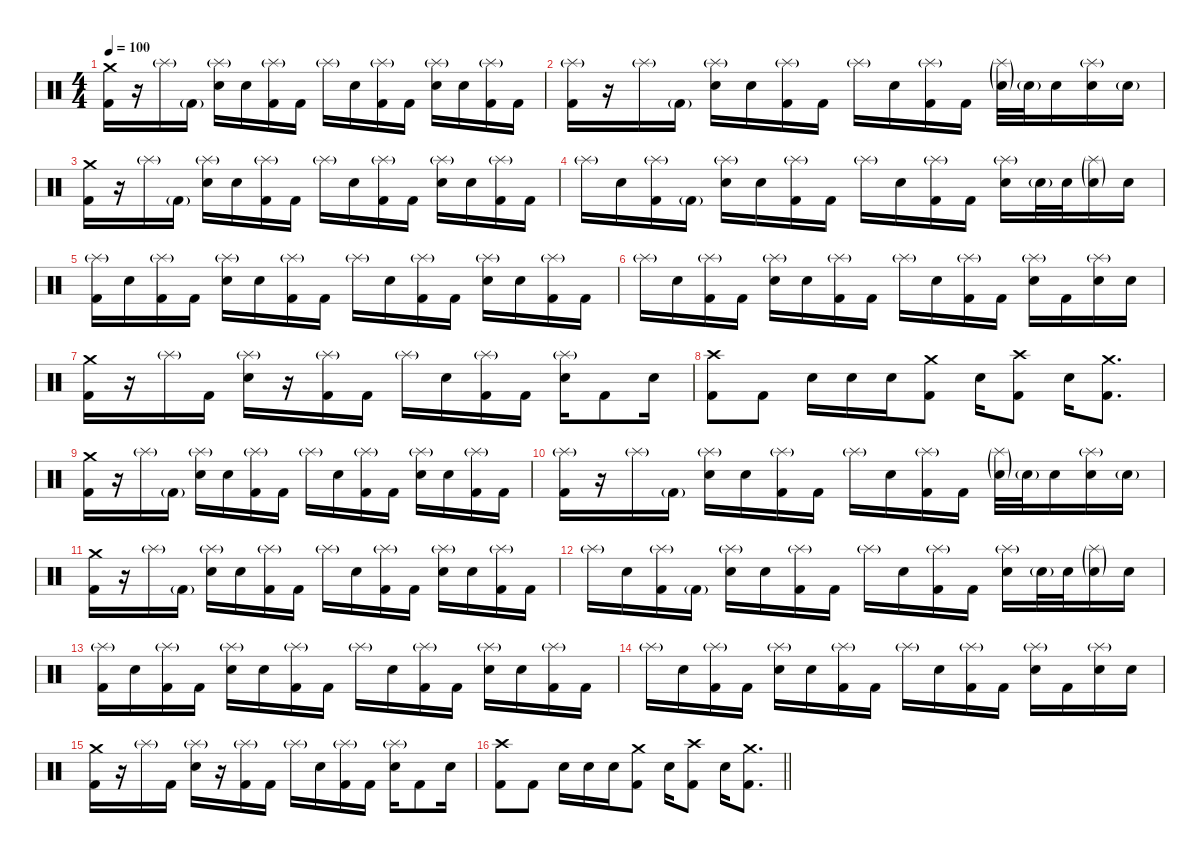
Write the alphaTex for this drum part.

\defaultSystemsLayout 4
\hideDynamics
\bracketExtendMode nobrackets
\singleTrackTrackNamePolicy hidden
\multiTrackTrackNamePolicy hidden
\firstSystemTrackNameMode fullname
\firstSystemTrackNameOrientation horizontal
\otherSystemsTrackNameOrientation horizontal
\track ("Drums" "drm.") {instrument percussion}
\staff {score}
\articulation defaults
\ts (4 4)
\tempo 100
\clef neutral
\ks c
("Crash medium (hit)" "Kick (hit) 2").16{dy f beam Down} r.16{beam Down} "Splash (hit)"{g}.16{dy mf beam Down} "Kick (hit) 2"{g}.16{dy f beam Down} ("Splash (hit)"{g} "Snare (hit) 2").16{beam Down} "Snare (hit) 2".16{beam Down} ("Splash (hit)"{g} "Kick (hit) 2").16{beam Down} "Kick (hit) 2".16{beam Down} "Splash (hit)"{g}.16{dy mf beam Down} "Snare (hit) 2".16{dy f beam Down} ("Splash (hit)"{g} "Kick (hit) 2").16{beam Down} "Kick (hit) 2".16{beam Down} ("Splash (hit)"{g} "Snare (hit) 2").16{beam Down} "Snare (hit) 2".16{beam Down} ("Splash (hit)"{g} "Kick (hit) 2").16{beam Down} "Kick (hit) 2".16{beam Down} |
("Splash (hit)"{g} "Kick (hit) 2").16{beam Down} r.16{beam Down} "Splash (hit)"{g}.16{dy mf beam Down} "Kick (hit) 2"{g}.16{dy f beam Down} ("Splash (hit)"{g} "Snare (hit) 2").16{beam Down} "Snare (hit) 2".16{beam Down} ("Splash (hit)"{g} "Kick (hit) 2").16{beam Down} "Kick (hit) 2".16{beam Down} "Splash (hit)"{g}.16{dy mf beam Down} "Snare (hit) 2".16{dy f beam Down} ("Splash (hit)"{g} "Kick (hit) 2").16{beam Down} "Kick (hit) 2".16{beam Down} ("Splash (hit)"{g} "Snare (hit) 2"{g}).32{dy mf beam Down} "Snare (hit) 2"{g}.32{dy f beam Down} "Snare (hit) 2".16{beam Down} ("Splash (hit)"{g} "Snare (hit) 2").16{beam Down} "Snare (hit) 2"{g}.16{beam Down} |
("Crash medium (hit)" "Kick (hit) 2").16{beam Down} r.16{beam Down} "Splash (hit)"{g}.16{dy mf beam Down} "Kick (hit) 2"{g}.16{beam Down} ("Splash (hit)"{g} "Snare (hit) 2").16{dy f beam Down} "Snare (hit) 2".16{beam Down} ("Splash (hit)"{g} "Kick (hit) 2").16{beam Down} "Kick (hit) 2".16{beam Down} "Splash (hit)"{g}.16{dy mf beam Down} "Snare (hit) 2".16{dy f beam Down} ("Splash (hit)"{g} "Kick (hit) 2").16{beam Down} "Kick (hit) 2".16{beam Down} ("Splash (hit)"{g} "Snare (hit) 2").16{beam Down} "Snare (hit) 2".16{beam Down} ("Splash (hit)"{g} "Kick (hit) 2").16{beam Down} "Kick (hit) 2".16{beam Down} |
"Splash (hit)"{g}.16{dy mf beam Down} "Snare (hit) 2".16{dy f beam Down} ("Splash (hit)"{g} "Kick (hit) 2").16{beam Down} "Kick (hit) 2"{g}.16{dy mf beam Down} ("Splash (hit)"{g} "Snare (hit) 2").16{dy f beam Down} "Snare (hit) 2".16{beam Down} ("Splash (hit)"{g} "Kick (hit) 2").16{beam Down} "Kick (hit) 2".16{beam Down} "Splash (hit)"{g}.16{dy mf beam Down} "Snare (hit) 2".16{dy f beam Down} ("Splash (hit)"{g} "Kick (hit) 2").16{beam Down} "Kick (hit) 2".16{beam Down} ("Splash (hit)"{g} "Snare (hit) 2").16{beam Down} "Snare (hit) 2"{g}.32{beam Down} "Snare (hit) 2".32{beam Down} ("Splash (hit)"{g} "Snare (hit) 2"{g}).16{dy mf beam Down} "Snare (hit) 2".16{dy f beam Down} |
("Splash (hit)"{g} "Kick (hit) 2").16{beam Down} "Snare (hit) 2".16{beam Down} ("Splash (hit)"{g} "Kick (hit) 2").16{beam Down} "Kick (hit) 2".16{beam Down} ("Splash (hit)"{g} "Snare (hit) 2").16{beam Down} "Snare (hit) 2".16{beam Down} ("Splash (hit)"{g} "Kick (hit) 2").16{beam Down} "Kick (hit) 2".16{beam Down} "Splash (hit)"{g}.16{dy mf beam Down} "Snare (hit) 2".16{dy f beam Down} ("Splash (hit)"{g} "Kick (hit) 2").16{beam Down} "Kick (hit) 2".16{beam Down} ("Splash (hit)"{g} "Snare (hit) 2").16{beam Down} "Snare (hit) 2".16{beam Down} ("Splash (hit)"{g} "Kick (hit) 2").16{beam Down} "Kick (hit) 2".16{beam Down} |
"Splash (hit)"{g}.16{dy mf beam Down} "Snare (hit) 2".16{dy f beam Down} ("Splash (hit)"{g} "Kick (hit) 2").16{beam Down} "Kick (hit) 2".16{beam Down} ("Splash (hit)"{g} "Snare (hit) 2").16{beam Down} "Snare (hit) 2".16{beam Down} ("Splash (hit)"{g} "Kick (hit) 2").16{beam Down} "Kick (hit) 2".16{beam Down} "Splash (hit)"{g}.16{dy mf beam Down} "Snare (hit) 2".16{dy f beam Down} ("Splash (hit)"{g} "Kick (hit) 2").16{beam Down} "Kick (hit) 2".16{beam Down} ("Splash (hit)"{g} "Snare (hit) 2").16{beam Down} "Kick (hit) 2".16{beam Down} ("Splash (hit)"{g} "Snare (hit) 2").16{beam Down} "Snare (hit) 2".16{beam Down} |
("Crash medium (hit)" "Kick (hit) 2").16{beam Down} r.16{beam Down} "Splash (hit)"{g}.16{dy mf beam Down} "Kick (hit) 2".16{dy f beam Down} ("Splash (hit)"{g} "Snare (hit) 2").16{beam Down} r.16{beam Down} ("Splash (hit)"{g} "Kick (hit) 2").16{beam Down} "Kick (hit) 2".16{beam Down} "Splash (hit)"{g}.16{dy mf beam Down} "Snare (hit) 2".16{dy f beam Down} ("Splash (hit)"{g} "Kick (hit) 2").16{beam Down} "Kick (hit) 2".16{beam Down} ("Splash (hit)"{g} "Snare (hit) 2").16{beam Down} "Kick (hit) 2".8{beam Down} "Snare (hit) 2".16{beam Down} |
("Crash high (hit)" "Kick (hit) 2").8{beam Down} "Kick (hit) 2".8{beam Down} "Snare (hit) 2".16{beam Down} "Snare (hit) 2".16{beam Down} "Snare (hit) 2".16{beam Down} ("Crash medium (hit)" "Kick (hit) 2").8{beam Down} "Snare (hit) 2".16{beam Down} ("Crash high (hit)" "Kick (hit) 2").8{beam Down} "Snare (hit) 2".16{beam Down} ("Crash medium (hit)" "Kick (hit) 2").8{d beam Down} |
("Crash medium (hit)" "Kick (hit) 2").16{beam Down} r.16{beam Down} "Splash (hit)"{g}.16{dy mf beam Down} "Kick (hit) 2"{g}.16{dy f beam Down} ("Splash (hit)"{g} "Snare (hit) 2").16{beam Down} "Snare (hit) 2".16{beam Down} ("Splash (hit)"{g} "Kick (hit) 2").16{beam Down} "Kick (hit) 2".16{beam Down} "Splash (hit)"{g}.16{dy mf beam Down} "Snare (hit) 2".16{dy f beam Down} ("Splash (hit)"{g} "Kick (hit) 2").16{beam Down} "Kick (hit) 2".16{beam Down} ("Splash (hit)"{g} "Snare (hit) 2").16{beam Down} "Snare (hit) 2".16{beam Down} ("Splash (hit)"{g} "Kick (hit) 2").16{beam Down} "Kick (hit) 2".16{beam Down} |
("Splash (hit)"{g} "Kick (hit) 2").16{beam Down} r.16{beam Down} "Splash (hit)"{g}.16{dy mf beam Down} "Kick (hit) 2"{g}.16{dy f beam Down} ("Splash (hit)"{g} "Snare (hit) 2").16{beam Down} "Snare (hit) 2".16{beam Down} ("Splash (hit)"{g} "Kick (hit) 2").16{beam Down} "Kick (hit) 2".16{beam Down} "Splash (hit)"{g}.16{dy mf beam Down} "Snare (hit) 2".16{dy f beam Down} ("Splash (hit)"{g} "Kick (hit) 2").16{beam Down} "Kick (hit) 2".16{beam Down} ("Splash (hit)"{g} "Snare (hit) 2"{g}).32{dy mf beam Down} "Snare (hit) 2"{g}.32{dy f beam Down} "Snare (hit) 2".16{beam Down} ("Splash (hit)"{g} "Snare (hit) 2").16{beam Down} "Snare (hit) 2"{g}.16{beam Down} |
("Crash medium (hit)" "Kick (hit) 2").16{beam Down} r.16{beam Down} "Splash (hit)"{g}.16{dy mf beam Down} "Kick (hit) 2"{g}.16{beam Down} ("Splash (hit)"{g} "Snare (hit) 2").16{dy f beam Down} "Snare (hit) 2".16{beam Down} ("Splash (hit)"{g} "Kick (hit) 2").16{beam Down} "Kick (hit) 2".16{beam Down} "Splash (hit)"{g}.16{dy mf beam Down} "Snare (hit) 2".16{dy f beam Down} ("Splash (hit)"{g} "Kick (hit) 2").16{beam Down} "Kick (hit) 2".16{beam Down} ("Splash (hit)"{g} "Snare (hit) 2").16{beam Down} "Snare (hit) 2".16{beam Down} ("Splash (hit)"{g} "Kick (hit) 2").16{beam Down} "Kick (hit) 2".16{beam Down} |
"Splash (hit)"{g}.16{dy mf beam Down} "Snare (hit) 2".16{dy f beam Down} ("Splash (hit)"{g} "Kick (hit) 2").16{beam Down} "Kick (hit) 2"{g}.16{dy mf beam Down} ("Splash (hit)"{g} "Snare (hit) 2").16{dy f beam Down} "Snare (hit) 2".16{beam Down} ("Splash (hit)"{g} "Kick (hit) 2").16{beam Down} "Kick (hit) 2".16{beam Down} "Splash (hit)"{g}.16{dy mf beam Down} "Snare (hit) 2".16{dy f beam Down} ("Splash (hit)"{g} "Kick (hit) 2").16{beam Down} "Kick (hit) 2".16{beam Down} ("Splash (hit)"{g} "Snare (hit) 2").16{beam Down} "Snare (hit) 2"{g}.32{beam Down} "Snare (hit) 2".32{beam Down} ("Splash (hit)"{g} "Snare (hit) 2"{g}).16{dy mf beam Down} "Snare (hit) 2".16{dy f beam Down} |
("Splash (hit)"{g} "Kick (hit) 2").16{beam Down} "Snare (hit) 2".16{beam Down} ("Splash (hit)"{g} "Kick (hit) 2").16{beam Down} "Kick (hit) 2".16{beam Down} ("Splash (hit)"{g} "Snare (hit) 2").16{beam Down} "Snare (hit) 2".16{beam Down} ("Splash (hit)"{g} "Kick (hit) 2").16{beam Down} "Kick (hit) 2".16{beam Down} "Splash (hit)"{g}.16{dy mf beam Down} "Snare (hit) 2".16{dy f beam Down} ("Splash (hit)"{g} "Kick (hit) 2").16{beam Down} "Kick (hit) 2".16{beam Down} ("Splash (hit)"{g} "Snare (hit) 2").16{beam Down} "Snare (hit) 2".16{beam Down} ("Splash (hit)"{g} "Kick (hit) 2").16{beam Down} "Kick (hit) 2".16{beam Down} |
"Splash (hit)"{g}.16{dy mf beam Down} "Snare (hit) 2".16{dy f beam Down} ("Splash (hit)"{g} "Kick (hit) 2").16{beam Down} "Kick (hit) 2".16{beam Down} ("Splash (hit)"{g} "Snare (hit) 2").16{beam Down} "Snare (hit) 2".16{beam Down} ("Splash (hit)"{g} "Kick (hit) 2").16{beam Down} "Kick (hit) 2".16{beam Down} "Splash (hit)"{g}.16{dy mf beam Down} "Snare (hit) 2".16{dy f beam Down} ("Splash (hit)"{g} "Kick (hit) 2").16{beam Down} "Kick (hit) 2".16{beam Down} ("Splash (hit)"{g} "Snare (hit) 2").16{beam Down} "Kick (hit) 2".16{beam Down} ("Splash (hit)"{g} "Snare (hit) 2").16{beam Down} "Snare (hit) 2".16{beam Down} |
("Crash medium (hit)" "Kick (hit) 2").16{beam Down} r.16{beam Down} "Splash (hit)"{g}.16{dy mf beam Down} "Kick (hit) 2".16{dy f beam Down} ("Splash (hit)"{g} "Snare (hit) 2").16{beam Down} r.16{beam Down} ("Splash (hit)"{g} "Kick (hit) 2").16{beam Down} "Kick (hit) 2".16{beam Down} "Splash (hit)"{g}.16{dy mf beam Down} "Snare (hit) 2".16{dy f beam Down} ("Splash (hit)"{g} "Kick (hit) 2").16{beam Down} "Kick (hit) 2".16{beam Down} ("Splash (hit)"{g} "Snare (hit) 2").16{beam Down} "Kick (hit) 2".8{beam Down} "Snare (hit) 2".16{beam Down} |
\barLineRight lightlight
("Crash high (hit)" "Kick (hit) 2").8{beam Down} "Kick (hit) 2".8{beam Down} "Snare (hit) 2".16{beam Down} "Snare (hit) 2".16{beam Down} "Snare (hit) 2".16{beam Down} ("Crash medium (hit)" "Kick (hit) 2").8{beam Down} "Snare (hit) 2".16{beam Down} ("Crash high (hit)" "Kick (hit) 2").8{beam Down} "Snare (hit) 2".16{beam Down} ("Crash medium (hit)" "Kick (hit) 2").8{d beam Down}
